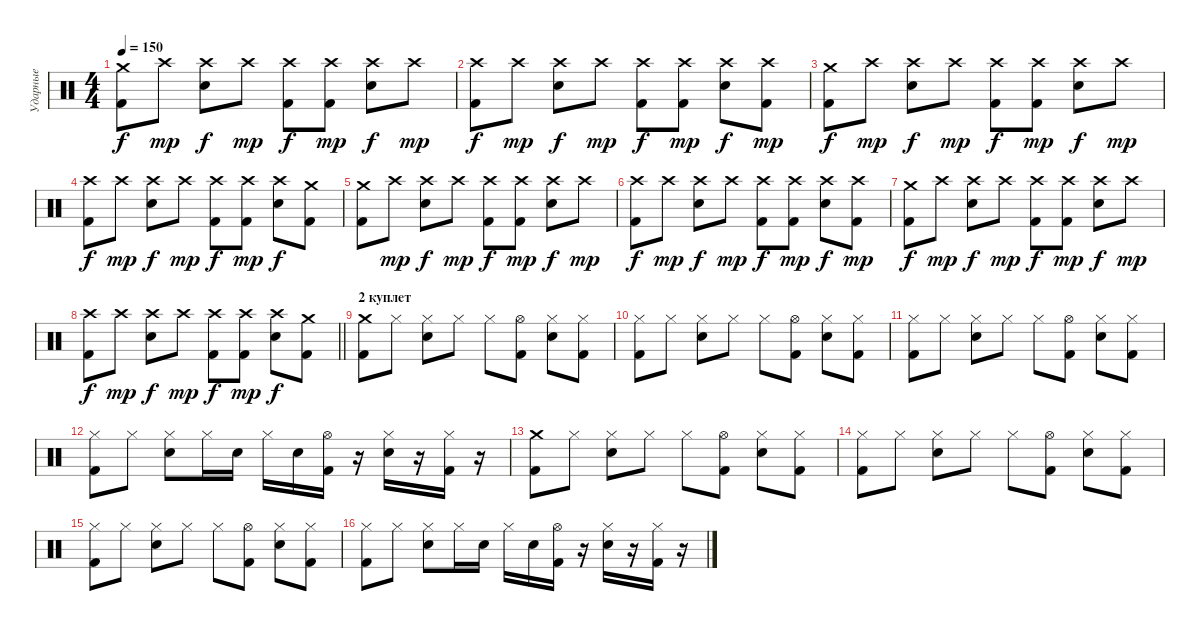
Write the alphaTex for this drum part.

\track ("Ударные" "Ударные") {instrument percussion}
\staff {score}
\articulation defaults
\ts (4 4)
\tempo 150
\clef neutral
\ks c
("Crash medium (hit)" "Kick (hit) 2").8{dy f} "Crash high (hit)".8{dy mp} ("Crash high (hit)" "Electric Snare (hit)").8{dy f} "Crash high (hit)".8{dy mp} ("Crash high (hit)" "Kick (hit) 2").8{dy f} ("Crash high (hit)" "Kick (hit) 2").8{dy mp} ("Crash high (hit)" "Electric Snare (hit)").8{dy f} "Crash high (hit)".8{dy mp} |
("Crash high (hit)" "Kick (hit) 2").8{dy f} "Crash high (hit)".8{dy mp} ("Crash high (hit)" "Electric Snare (hit)").8{dy f} "Crash high (hit)".8{dy mp} ("Crash high (hit)" "Kick (hit) 2").8{dy f} ("Crash high (hit)" "Kick (hit) 2").8{dy mp} ("Crash high (hit)" "Electric Snare (hit)").8{dy f} ("Crash high (hit)" "Kick (hit) 2").8{dy mp} |
("Crash medium (hit)" "Kick (hit) 2").8{dy f} "Crash high (hit)".8{dy mp} ("Crash high (hit)" "Electric Snare (hit)").8{dy f} "Crash high (hit)".8{dy mp} ("Crash high (hit)" "Kick (hit) 2").8{dy f} ("Crash high (hit)" "Kick (hit) 2").8{dy mp} ("Crash high (hit)" "Electric Snare (hit)").8{dy f} "Crash high (hit)".8{dy mp} |
("Crash high (hit)" "Kick (hit) 2").8{dy f} "Crash high (hit)".8{dy mp} ("Crash high (hit)" "Electric Snare (hit)").8{dy f} "Crash high (hit)".8{dy mp} ("Crash high (hit)" "Kick (hit) 2").8{dy f} ("Crash high (hit)" "Kick (hit) 2").8{dy mp} ("Crash high (hit)" "Electric Snare (hit)").8{dy f} ("Crash medium (hit)" "Kick (hit) 2").8 |
("Crash medium (hit)" "Kick (hit) 2").8 "Crash high (hit)".8{dy mp} ("Crash high (hit)" "Electric Snare (hit)").8{dy f} "Crash high (hit)".8{dy mp} ("Crash high (hit)" "Kick (hit) 2").8{dy f} ("Crash high (hit)" "Kick (hit) 2").8{dy mp} ("Crash high (hit)" "Electric Snare (hit)").8{dy f} "Crash high (hit)".8{dy mp} |
("Crash high (hit)" "Kick (hit) 2").8{dy f} "Crash high (hit)".8{dy mp} ("Crash high (hit)" "Electric Snare (hit)").8{dy f} "Crash high (hit)".8{dy mp} ("Crash high (hit)" "Kick (hit) 2").8{dy f} ("Crash high (hit)" "Kick (hit) 2").8{dy mp} ("Crash high (hit)" "Electric Snare (hit)").8{dy f} ("Crash high (hit)" "Kick (hit) 2").8{dy mp} |
("Crash medium (hit)" "Kick (hit) 2").8{dy f} "Crash high (hit)".8{dy mp} ("Crash high (hit)" "Electric Snare (hit)").8{dy f} "Crash high (hit)".8{dy mp} ("Crash high (hit)" "Kick (hit) 2").8{dy f} ("Crash high (hit)" "Kick (hit) 2").8{dy mp} ("Crash high (hit)" "Electric Snare (hit)").8{dy f} "Crash high (hit)".8{dy mp} |
\barLineRight lightlight
("Crash high (hit)" "Kick (hit) 2").8{dy f} "Crash high (hit)".8{dy mp} ("Crash high (hit)" "Electric Snare (hit)").8{dy f} "Crash high (hit)".8{dy mp} ("Crash high (hit)" "Kick (hit) 2").8{dy f} ("Crash high (hit)" "Kick (hit) 2").8{dy mp} ("Crash high (hit)" "Electric Snare (hit)").8{dy f} ("Crash medium (hit)" "Kick (hit) 2").8 |
\section ("" "2 куплет")
("Crash medium (hit)" "Kick (hit) 2").8 "Hi-Hat (closed)".8 ("Hi-Hat (closed)" "Electric Snare (hit)").8 "Hi-Hat (closed)".8 "Hi-Hat (closed)".8 ("Hi-Hat (open)" "Kick (hit) 2").8 ("Hi-Hat (closed)" "Electric Snare (hit)").8 ("Hi-Hat (closed)" "Kick (hit) 2").8 |
("Hi-Hat (closed)" "Kick (hit) 2").8 "Hi-Hat (closed)".8 ("Hi-Hat (closed)" "Electric Snare (hit)").8 "Hi-Hat (closed)".8 "Hi-Hat (closed)".8 ("Hi-Hat (open)" "Kick (hit) 2").8 ("Hi-Hat (closed)" "Electric Snare (hit)").8 ("Hi-Hat (closed)" "Kick (hit) 2").8 |
("Hi-Hat (closed)" "Kick (hit) 2").8 "Hi-Hat (closed)".8 ("Hi-Hat (closed)" "Electric Snare (hit)").8 "Hi-Hat (closed)".8 "Hi-Hat (closed)".8 ("Hi-Hat (open)" "Kick (hit) 2").8 ("Hi-Hat (closed)" "Electric Snare (hit)").8 ("Hi-Hat (closed)" "Kick (hit) 2").8 |
("Hi-Hat (closed)" "Kick (hit) 2").8 "Hi-Hat (closed)".8 ("Hi-Hat (closed)" "Electric Snare (hit)").8 "Hi-Hat (closed)".16 "Electric Snare (hit)".16 "Hi-Hat (closed)".16 "Electric Snare (hit)".16 ("Hi-Hat (open)" "Kick (hit) 2").16 r.16 ("Hi-Hat (closed)" "Electric Snare (hit)").16 r.16 ("Hi-Hat (closed)" "Kick (hit) 2").16 r.16 |
("Crash medium (hit)" "Kick (hit) 2").8 "Hi-Hat (closed)".8 ("Hi-Hat (closed)" "Electric Snare (hit)").8 "Hi-Hat (closed)".8 "Hi-Hat (closed)".8 ("Hi-Hat (open)" "Kick (hit) 2").8 ("Hi-Hat (closed)" "Electric Snare (hit)").8 ("Hi-Hat (closed)" "Kick (hit) 2").8 |
("Hi-Hat (closed)" "Kick (hit) 2").8 "Hi-Hat (closed)".8 ("Hi-Hat (closed)" "Electric Snare (hit)").8 "Hi-Hat (closed)".8 "Hi-Hat (closed)".8 ("Hi-Hat (open)" "Kick (hit) 2").8 ("Hi-Hat (closed)" "Electric Snare (hit)").8 ("Hi-Hat (closed)" "Kick (hit) 2").8 |
("Hi-Hat (closed)" "Kick (hit) 2").8 "Hi-Hat (closed)".8 ("Hi-Hat (closed)" "Electric Snare (hit)").8 "Hi-Hat (closed)".8 "Hi-Hat (closed)".8 ("Hi-Hat (open)" "Kick (hit) 2").8 ("Hi-Hat (closed)" "Electric Snare (hit)").8 ("Hi-Hat (closed)" "Kick (hit) 2").8 |
("Hi-Hat (closed)" "Kick (hit) 2").8 "Hi-Hat (closed)".8 ("Hi-Hat (closed)" "Electric Snare (hit)").8 "Hi-Hat (closed)".16 "Electric Snare (hit)".16 "Hi-Hat (closed)".16 "Electric Snare (hit)".16 ("Hi-Hat (open)" "Kick (hit) 2").16 r.16 ("Hi-Hat (closed)" "Electric Snare (hit)").16 r.16 ("Hi-Hat (closed)" "Kick (hit) 2").16 r.16
